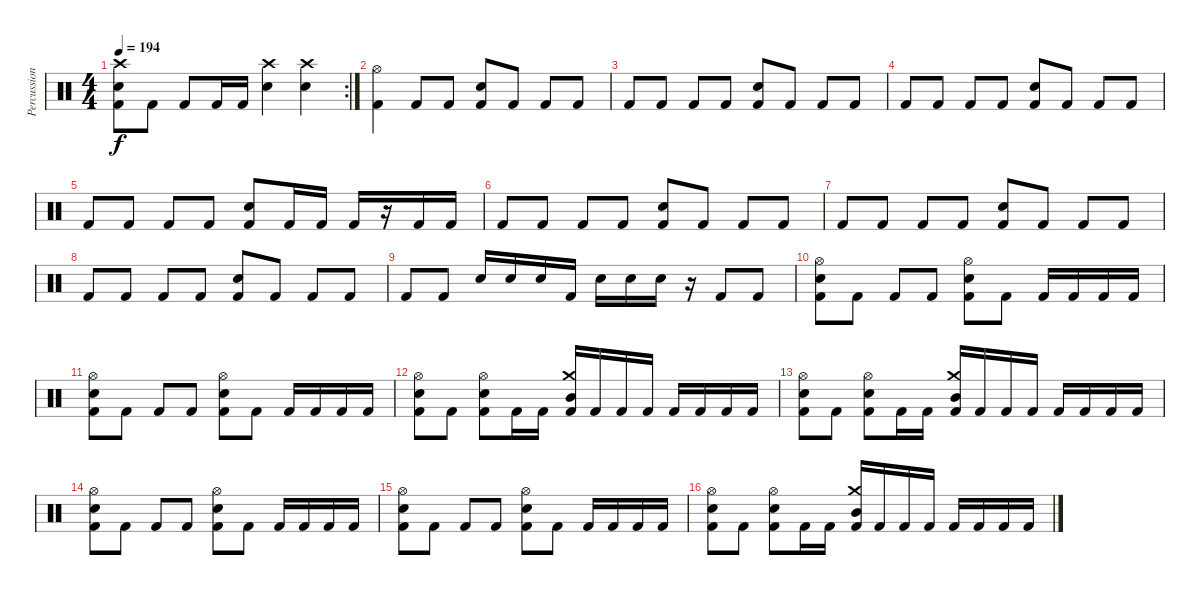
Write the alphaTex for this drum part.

\track ("Percussions" "Percussion") {instrument percussion}
\staff {score}
\articulation defaults
\rc 2
\ts (4 4)
\tempo 194
\clef neutral
\ks c
("Crash high (hit)" "Electric Snare (hit)" "Kick (hit) 2").8{dy f} "Kick (hit) 2".8 "Kick (hit) 2".8 "Kick (hit) 2".16 "Kick (hit) 2".16 ("Crash high (hit)" "Electric Snare (hit)").4 ("Crash high (hit)" "Electric Snare (hit)").4 |
("Hi-Hat (open)" "Kick (hit) 2").4 "Kick (hit) 2".8 "Kick (hit) 2".8 ("Snare (hit) 2" "Kick (hit) 2").8 "Kick (hit) 2".8 "Kick (hit) 2".8 "Kick (hit) 2".8 |
"Kick (hit) 2".8 "Kick (hit) 2".8 "Kick (hit) 2".8 "Kick (hit) 2".8 ("Snare (hit) 2" "Kick (hit) 2").8 "Kick (hit) 2".8 "Kick (hit) 2".8 "Kick (hit) 2".8 |
"Kick (hit) 2".8 "Kick (hit) 2".8 "Kick (hit) 2".8 "Kick (hit) 2".8 ("Snare (hit) 2" "Kick (hit) 2").8 "Kick (hit) 2".8 "Kick (hit) 2".8 "Kick (hit) 2".8 |
"Kick (hit) 2".8 "Kick (hit) 2".8 "Kick (hit) 2".8 "Kick (hit) 2".8 ("Snare (hit) 2" "Kick (hit) 2").8 "Kick (hit) 2".16 "Kick (hit) 2".16 "Kick (hit) 2".16 r.16 "Kick (hit) 2".16 "Kick (hit) 2".16 |
"Kick (hit) 2".8 "Kick (hit) 2".8 "Kick (hit) 2".8 "Kick (hit) 2".8 ("Snare (hit) 2" "Kick (hit) 2").8 "Kick (hit) 2".8 "Kick (hit) 2".8 "Kick (hit) 2".8 |
"Kick (hit) 2".8 "Kick (hit) 2".8 "Kick (hit) 2".8 "Kick (hit) 2".8 ("Snare (hit) 2" "Kick (hit) 2").8 "Kick (hit) 2".8 "Kick (hit) 2".8 "Kick (hit) 2".8 |
"Kick (hit) 2".8 "Kick (hit) 2".8 "Kick (hit) 2".8 "Kick (hit) 2".8 ("Snare (hit) 2" "Kick (hit) 2").8 "Kick (hit) 2".8 "Kick (hit) 2".8 "Kick (hit) 2".8 |
"Kick (hit) 2".8 "Kick (hit) 2".8 "Snare (hit) 2".16 "Snare (hit) 2".16 "Snare (hit) 2".16 "Kick (hit) 2".16 "Snare (hit) 2".16 "Snare (hit) 2".16 "Snare (hit) 2".16 r.16 "Kick (hit) 2".8 "Kick (hit) 2".8 |
("Hi-Hat (open)" "Electric Snare (hit)" "Kick (hit) 2").8 "Kick (hit) 2".8 "Kick (hit) 2".8 "Kick (hit) 2".8 ("Hi-Hat (open)" "Electric Snare (hit)" "Kick (hit) 2").8 "Kick (hit) 2".8 "Kick (hit) 2".16 "Kick (hit) 2".16 "Kick (hit) 2".16 "Kick (hit) 2".16 |
("Hi-Hat (open)" "Electric Snare (hit)" "Kick (hit) 2").8 "Kick (hit) 2".8 "Kick (hit) 2".8 "Kick (hit) 2".8 ("Hi-Hat (open)" "Electric Snare (hit)" "Kick (hit) 2").8 "Kick (hit) 2".8 "Kick (hit) 2".16 "Kick (hit) 2".16 "Kick (hit) 2".16 "Kick (hit) 2".16 |
("Hi-Hat (open)" "Electric Snare (hit)" "Kick (hit) 2").8 "Kick (hit) 2".8 ("Hi-Hat (open)" "Electric Snare (hit)" "Kick (hit) 2").8 "Kick (hit) 2".16 "Kick (hit) 2".16 ("Crash medium (hit)" "Mid Tom (hit)" "Kick (hit) 2").16 "Kick (hit) 2".16 "Kick (hit) 2".16 "Kick (hit) 2".16 "Kick (hit) 2".16 "Kick (hit) 2".16 "Kick (hit) 2".16 "Kick (hit) 2".16 |
("Hi-Hat (open)" "Electric Snare (hit)" "Kick (hit) 2").8 "Kick (hit) 2".8 ("Hi-Hat (open)" "Electric Snare (hit)" "Kick (hit) 2").8 "Kick (hit) 2".16 "Kick (hit) 2".16 ("Crash medium (hit)" "Mid Tom (hit)" "Kick (hit) 2").16 "Kick (hit) 2".16 "Kick (hit) 2".16 "Kick (hit) 2".16 "Kick (hit) 2".16 "Kick (hit) 2".16 "Kick (hit) 2".16 "Kick (hit) 2".16 |
("Hi-Hat (open)" "Electric Snare (hit)" "Kick (hit) 2").8 "Kick (hit) 2".8 "Kick (hit) 2".8 "Kick (hit) 2".8 ("Hi-Hat (open)" "Electric Snare (hit)" "Kick (hit) 2").8 "Kick (hit) 2".8 "Kick (hit) 2".16 "Kick (hit) 2".16 "Kick (hit) 2".16 "Kick (hit) 2".16 |
("Hi-Hat (open)" "Electric Snare (hit)" "Kick (hit) 2").8 "Kick (hit) 2".8 "Kick (hit) 2".8 "Kick (hit) 2".8 ("Hi-Hat (open)" "Electric Snare (hit)" "Kick (hit) 2").8 "Kick (hit) 2".8 "Kick (hit) 2".16 "Kick (hit) 2".16 "Kick (hit) 2".16 "Kick (hit) 2".16 |
("Hi-Hat (open)" "Electric Snare (hit)" "Kick (hit) 2").8 "Kick (hit) 2".8 ("Hi-Hat (open)" "Electric Snare (hit)" "Kick (hit) 2").8 "Kick (hit) 2".16 "Kick (hit) 2".16 ("Crash medium (hit)" "Mid Tom (hit)" "Kick (hit) 2").16 "Kick (hit) 2".16 "Kick (hit) 2".16 "Kick (hit) 2".16 "Kick (hit) 2".16 "Kick (hit) 2".16 "Kick (hit) 2".16 "Kick (hit) 2".16
